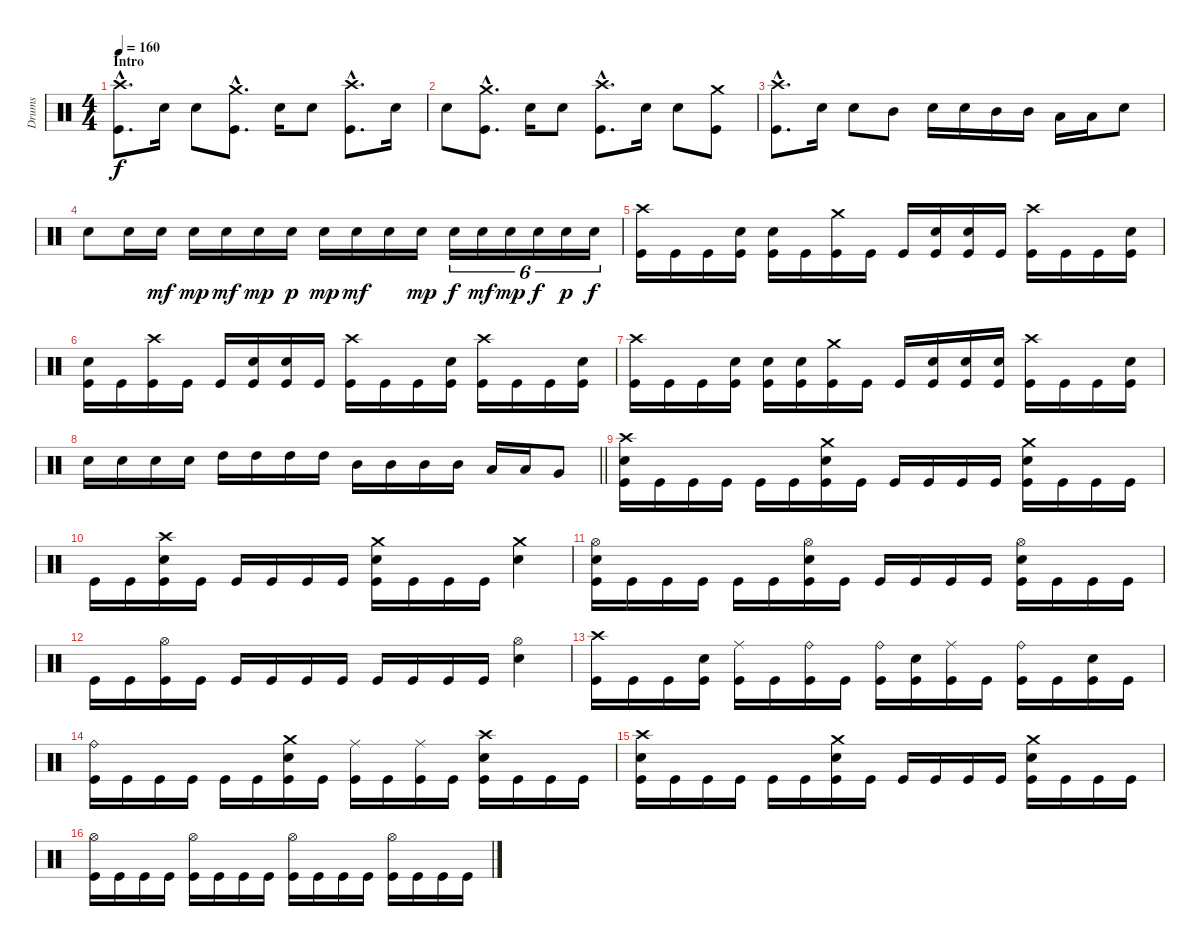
\track ("Drums" "Drums") {instrument percussion}
\staff {score}
\articulation defaults
\ts (4 4)
\section ("" "Intro")
\tempo 160
\clef neutral
\ks c
("Crash high (hit)"{hac} "Kick (hit)"{hac}).8{d dy f} "Electric Snare (hit)".16 "Electric Snare (hit)".8 ("Crash medium (hit)"{hac} "Kick (hit)"{hac}).8{d} "Electric Snare (hit)".16 "Electric Snare (hit)".8 ("Crash high (hit)"{hac} "Kick (hit)"{hac}).8{d} "Electric Snare (hit)".16 |
"Electric Snare (hit)".8 ("Crash medium (hit)"{hac} "Kick (hit)"{hac}).8{d} "Electric Snare (hit)".16 "Electric Snare (hit)".8 ("Crash high (hit)"{hac} "Kick (hit)"{hac}).8{d} "Electric Snare (hit)".16 "Electric Snare (hit)".8 ("Crash medium (hit)" "Kick (hit)").8 |
("Crash high (hit)"{hac} "Kick (hit)"{hac}).8{d} "Electric Snare (hit)".16 "Electric Snare (hit)".8 "Mid Tom (hit)".8 "Electric Snare (hit)".16 "Electric Snare (hit)".16 "Mid Tom (hit)".16 "Mid Tom (hit)".16 "Low Tom (hit)".16 "Low Tom (hit)".16 "Electric Snare (hit)".8 |
"Electric Snare (hit)".8 "Electric Snare (hit)".16 "Electric Snare (hit)".16{dy mf} "Electric Snare (hit)".16{dy mp} "Electric Snare (hit)".16{dy mf} "Electric Snare (hit)".16{dy mp} "Electric Snare (hit)".16{dy p} "Electric Snare (hit)".16{dy mp} "Electric Snare (hit)".16{dy mf} "Electric Snare (hit)".16 "Electric Snare (hit)".16{dy mp} "Electric Snare (hit)".16{tu (6 4) dy f} "Electric Snare (hit)".16{tu (6 4) dy mf} "Electric Snare (hit)".16{tu (6 4) dy mp} "Electric Snare (hit)".16{tu (6 4) dy f} "Electric Snare (hit)".16{tu (6 4) dy p} "Electric Snare (hit)".16{tu (6 4) dy f} |
("Crash high (hit)" "Kick (hit)").16 "Kick (hit)".16 "Kick (hit)".16 ("Electric Snare (hit)" "Kick (hit)").16 ("Electric Snare (hit)" "Kick (hit)").16 "Kick (hit)".16 ("Crash medium (hit)" "Kick (hit)").16 "Kick (hit)".16 "Kick (hit)".16 ("Electric Snare (hit)" "Kick (hit)").16 ("Electric Snare (hit)" "Kick (hit)").16 "Kick (hit)".16 ("Crash high (hit)" "Kick (hit)").16 "Kick (hit)".16 "Kick (hit)".16 ("Electric Snare (hit)" "Kick (hit)").16 |
("Electric Snare (hit)" "Kick (hit)").16 "Kick (hit)".16 ("Crash high (hit)" "Kick (hit)").16 "Kick (hit)".16 "Kick (hit)".16 ("Electric Snare (hit)" "Kick (hit)").16 ("Electric Snare (hit)" "Kick (hit)").16 "Kick (hit)".16 ("Crash high (hit)" "Kick (hit)").16 "Kick (hit)".16 "Kick (hit)".16 ("Electric Snare (hit)" "Kick (hit)").16 ("Crash high (hit)" "Kick (hit)").16 "Kick (hit)".16 "Kick (hit)".16 ("Electric Snare (hit)" "Kick (hit)").16 |
("Crash high (hit)" "Kick (hit)").16 "Kick (hit)".16 "Kick (hit)".16 ("Electric Snare (hit)" "Kick (hit)").16 ("Electric Snare (hit)" "Kick (hit)").16 ("Electric Snare (hit)" "Kick (hit)").16 ("Crash medium (hit)" "Kick (hit)").16 "Kick (hit)".16 "Kick (hit)".16 ("Electric Snare (hit)" "Kick (hit)").16 ("Electric Snare (hit)" "Kick (hit)").16 ("Electric Snare (hit)" "Kick (hit)").16 ("Crash high (hit)" "Kick (hit)").16 "Kick (hit)".16 "Kick (hit)".16 ("Electric Snare (hit)" "Kick (hit)").16 |
\barLineRight lightlight "Electric Snare (hit)".16 "Electric Snare (hit)".16 "Electric Snare (hit)".16 "Electric Snare (hit)".16 "High Tom (hit)".16 "High Tom (hit)".16 "High Tom (hit)".16 "High Tom (hit)".16 "Mid Tom (hit)".16 "Mid Tom (hit)".16 "Mid Tom (hit)".16 "Mid Tom (hit)".16 "Low Tom (hit)".16 "Low Tom (hit)".16 "Very Low Tom (hit)".8
|
("Crash high (hit)" "Electric Snare (hit)" "Kick (hit)").16 "Kick (hit)".16 "Kick (hit)".16 "Kick (hit)".16 "Kick (hit)".16 "Kick (hit)".16 ("Crash medium (hit)" "Electric Snare (hit)" "Kick (hit)").16 "Kick (hit)".16 "Kick (hit)".16 "Kick (hit)".16 "Kick (hit)".16 "Kick (hit)".16 ("Crash medium (hit)" "Electric Snare (hit)" "Kick (hit)").16 "Kick (hit)".16 "Kick (hit)".16 "Kick (hit)".16 |
"Kick (hit)".16 "Kick (hit)".16 ("Crash high (hit)" "Electric Snare (hit)" "Kick (hit)").16 "Kick (hit)".16 "Kick (hit)".16 "Kick (hit)".16 "Kick (hit)".16 "Kick (hit)".16 ("Crash medium (hit)" "Electric Snare (hit)" "Kick (hit)").16 "Kick (hit)".16 "Kick (hit)".16 "Kick (hit)".16 ("Crash medium (hit)" "Electric Snare (hit)").4 |
("Hi-Hat (open)" "Electric Snare (hit)" "Kick (hit)").16 "Kick (hit)".16 "Kick (hit)".16 "Kick (hit)".16 "Kick (hit)".16 "Kick (hit)".16 ("Hi-Hat (open)" "Electric Snare (hit)" "Kick (hit)").16 "Kick (hit)".16 "Kick (hit)".16 "Kick (hit)".16 "Kick (hit)".16 "Kick (hit)".16 ("Hi-Hat (open)" "Electric Snare (hit)" "Kick (hit)").16 "Kick (hit)".16 "Kick (hit)".16 "Kick (hit)".16 |
"Kick (hit)".16 "Kick (hit)".16 ("Hi-Hat (open)" "Kick (hit)").16 "Kick (hit)".16 "Kick (hit)".16 "Kick (hit)".16 "Kick (hit)".16 "Kick (hit)".16 "Kick (hit)".16 "Kick (hit)".16 "Kick (hit)".16 "Kick (hit)".16 ("Hi-Hat (open)" "Electric Snare (hit)").4 |
("Crash high (hit)" "Kick (hit)").16 "Kick (hit)".16 "Kick (hit)".16 ("Electric Snare (hit)" "Kick (hit)").16 ("Ride (middle)" "Kick (hit)").16 "Kick (hit)".16 ("Ride (bell)" "Kick (hit)").16 "Kick (hit)".16 ("Ride (bell)" "Kick (hit)").16 ("Electric Snare (hit)" "Kick (hit)").16 ("Ride (middle)" "Kick (hit)").16 "Kick (hit)".16 ("Ride (bell)" "Kick (hit)").16 "Kick (hit)".16 ("Snare (hit)" "Kick (hit)").16 "Kick (hit)".16 |
("Ride (bell)" "Kick (hit)").16 "Kick (hit)".16 "Kick (hit)".16 "Kick (hit)".16 "Kick (hit)".16 "Kick (hit)".16 ("Crash medium (hit)" "Electric Snare (hit)" "Kick (hit)").16 "Kick (hit)".16 ("Ride (middle)" "Kick (hit)").16 "Kick (hit)".16 ("Ride (middle)" "Kick (hit)").16 "Kick (hit)".16 ("Crash high (hit)" "Electric Snare (hit)" "Kick (hit)").16 "Kick (hit)".16 "Kick (hit)".16 "Kick (hit)".16 |
("Crash high (hit)" "Electric Snare (hit)" "Kick (hit)").16 "Kick (hit)".16 "Kick (hit)".16 "Kick (hit)".16 "Kick (hit)".16 "Kick (hit)".16 ("Crash medium (hit)" "Electric Snare (hit)" "Kick (hit)").16 "Kick (hit)".16 "Kick (hit)".16 "Kick (hit)".16 "Kick (hit)".16 "Kick (hit)".16 ("Crash medium (hit)" "Electric Snare (hit)" "Kick (hit)").16 "Kick (hit)".16 "Kick (hit)".16 "Kick (hit)".16 |
("Hi-Hat (open)" "Kick (hit)").16 "Kick (hit)".16 "Kick (hit)".16 "Kick (hit)".16 ("Hi-Hat (open)" "Kick (hit)").16 "Kick (hit)".16 "Kick (hit)".16 "Kick (hit)".16 ("Hi-Hat (open)" "Kick (hit)").16 "Kick (hit)".16 "Kick (hit)".16 "Kick (hit)".16 ("Hi-Hat (open)" "Kick (hit)").16 "Kick (hit)".16 "Kick (hit)".16 "Kick (hit)".16
